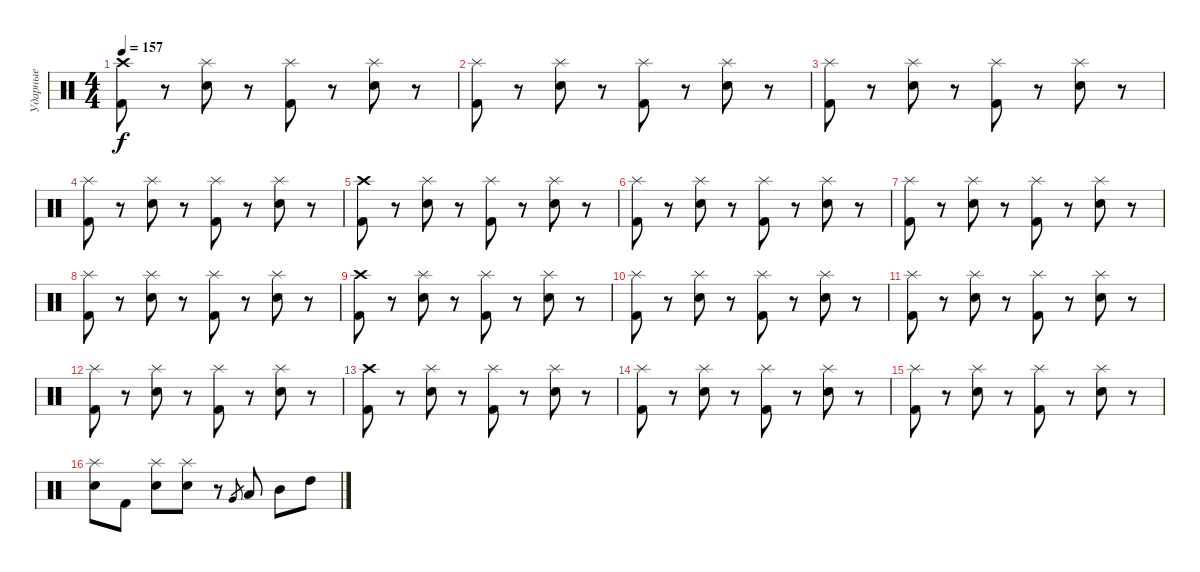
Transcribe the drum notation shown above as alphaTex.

\track ("Ударные" "Ударные") {instrument percussion}
\staff {score}
\articulation defaults
\ts (4 4)
\tempo 157
\clef neutral
\ks c
("Crash high (hit)" "Kick (hit) 2").8{dy f} r.8 ("Splash (hit)" "Electric Snare (hit)").8 r.8 ("Splash (hit)" "Kick (hit) 2").8 r.8 ("Splash (hit)" "Electric Snare (hit)").8 r.8 |
("Splash (hit)" "Kick (hit) 2").8 r.8 ("Splash (hit)" "Electric Snare (hit)").8 r.8 ("Splash (hit)" "Kick (hit) 2").8 r.8 ("Splash (hit)" "Electric Snare (hit)").8 r.8 |
("Splash (hit)" "Kick (hit) 2").8 r.8 ("Splash (hit)" "Electric Snare (hit)").8 r.8 ("Splash (hit)" "Kick (hit) 2").8 r.8 ("Splash (hit)" "Electric Snare (hit)").8 r.8 |
("Splash (hit)" "Kick (hit) 2").8 r.8 ("Splash (hit)" "Electric Snare (hit)").8 r.8 ("Splash (hit)" "Kick (hit) 2").8 r.8 ("Splash (hit)" "Electric Snare (hit)").8 r.8 |
("Crash high (hit)" "Kick (hit) 2").8 r.8 ("Splash (hit)" "Electric Snare (hit)").8 r.8 ("Splash (hit)" "Kick (hit) 2").8 r.8 ("Splash (hit)" "Electric Snare (hit)").8 r.8 |
("Splash (hit)" "Kick (hit) 2").8 r.8 ("Splash (hit)" "Electric Snare (hit)").8 r.8 ("Splash (hit)" "Kick (hit) 2").8 r.8 ("Splash (hit)" "Electric Snare (hit)").8 r.8 |
("Splash (hit)" "Kick (hit) 2").8 r.8 ("Splash (hit)" "Electric Snare (hit)").8 r.8 ("Splash (hit)" "Kick (hit) 2").8 r.8 ("Splash (hit)" "Electric Snare (hit)").8 r.8 |
("Splash (hit)" "Kick (hit) 2").8 r.8 ("Splash (hit)" "Electric Snare (hit)").8 r.8 ("Splash (hit)" "Kick (hit) 2").8 r.8 ("Splash (hit)" "Electric Snare (hit)").8 r.8 |
("Crash high (hit)" "Kick (hit) 2").8 r.8 ("Splash (hit)" "Electric Snare (hit)").8 r.8 ("Splash (hit)" "Kick (hit) 2").8 r.8 ("Splash (hit)" "Electric Snare (hit)").8 r.8 |
("Splash (hit)" "Kick (hit) 2").8 r.8 ("Splash (hit)" "Electric Snare (hit)").8 r.8 ("Splash (hit)" "Kick (hit) 2").8 r.8 ("Splash (hit)" "Electric Snare (hit)").8 r.8 |
("Splash (hit)" "Kick (hit) 2").8 r.8 ("Splash (hit)" "Electric Snare (hit)").8 r.8 ("Splash (hit)" "Kick (hit) 2").8 r.8 ("Splash (hit)" "Electric Snare (hit)").8 r.8 |
("Splash (hit)" "Kick (hit) 2").8 r.8 ("Splash (hit)" "Electric Snare (hit)").8 r.8 ("Splash (hit)" "Kick (hit) 2").8 r.8 ("Splash (hit)" "Electric Snare (hit)").8 r.8 |
("Crash high (hit)" "Kick (hit) 2").8 r.8 ("Splash (hit)" "Electric Snare (hit)").8 r.8 ("Splash (hit)" "Kick (hit) 2").8 r.8 ("Splash (hit)" "Electric Snare (hit)").8 r.8 |
("Splash (hit)" "Kick (hit) 2").8 r.8 ("Splash (hit)" "Electric Snare (hit)").8 r.8 ("Splash (hit)" "Kick (hit) 2").8 r.8 ("Splash (hit)" "Electric Snare (hit)").8 r.8 |
("Splash (hit)" "Kick (hit) 2").8 r.8 ("Splash (hit)" "Electric Snare (hit)").8 r.8 ("Splash (hit)" "Kick (hit) 2").8 r.8 ("Splash (hit)" "Electric Snare (hit)").8 r.8 |
("Splash (hit)" "Electric Snare (hit)").8 "Kick (hit) 2".8 ("Splash (hit)" "Electric Snare (hit)").8 ("Splash (hit)" "Electric Snare (hit)").8 r.8 "Very Low Tom (hit)".8{gr} "Low Tom (hit)".8 "Mid Tom (hit)".8 "High Tom (hit)".8
